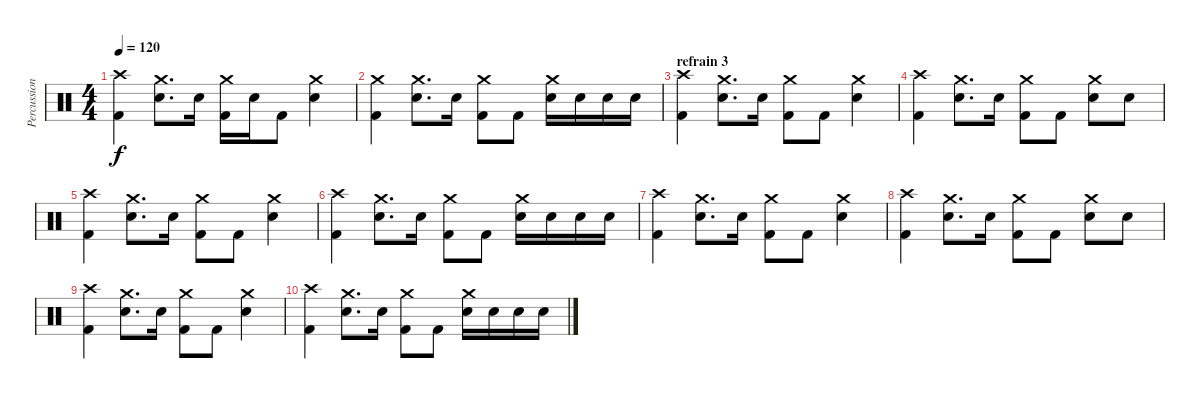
\track ("Percussions" "Percussion") {instrument percussion}
\staff {score}
\articulation defaults
\ts (4 4)
\tempo 120
\clef neutral
\ks c
("Crash high (hit)" "Kick (hit) 2").4{dy f} ("Crash medium (hit)" "Snare (hit) 2").8{d} "Snare (hit) 2".16 ("Crash medium (hit)" "Kick (hit) 2").16 "Snare (hit) 2".16 "Kick (hit) 2".8 ("Crash medium (hit)" "Snare (hit) 2").4 |
("Crash medium (hit)" "Kick (hit) 2").4 ("Crash medium (hit)" "Snare (hit) 2").8{d} "Snare (hit) 2".16 ("Crash medium (hit)" "Kick (hit) 2").8 "Kick (hit) 2".8 ("Crash medium (hit)" "Snare (hit) 2").16 "Snare (hit) 2".16 "Snare (hit) 2".16 "Snare (hit) 2".16 |
\section ("" "refrain 3")
("Crash high (hit)" "Kick (hit) 2").4 ("Crash medium (hit)" "Snare (hit) 2").8{d} "Snare (hit) 2".16 ("Crash medium (hit)" "Kick (hit) 2").8 "Kick (hit) 2".8 ("Crash medium (hit)" "Snare (hit) 2").4 |
("Crash high (hit)" "Kick (hit) 2").4 ("Crash medium (hit)" "Snare (hit) 2").8{d} "Snare (hit) 2".16 ("Crash medium (hit)" "Kick (hit) 2").8 "Kick (hit) 2".8 ("Crash medium (hit)" "Snare (hit) 2").8 "Snare (hit) 2".8 |
("Crash high (hit)" "Kick (hit) 2").4 ("Crash medium (hit)" "Snare (hit) 2").8{d} "Snare (hit) 2".16 ("Crash medium (hit)" "Kick (hit) 2").8 "Kick (hit) 2".8 ("Crash medium (hit)" "Snare (hit) 2").4 |
("Crash high (hit)" "Kick (hit) 2").4 ("Crash medium (hit)" "Snare (hit) 2").8{d} "Snare (hit) 2".16 ("Crash medium (hit)" "Kick (hit) 2").8 "Kick (hit) 2".8 ("Crash medium (hit)" "Snare (hit) 2").16 "Snare (hit) 2".16 "Snare (hit) 2".16 "Snare (hit) 2".16 |
("Crash high (hit)" "Kick (hit) 2").4 ("Crash medium (hit)" "Snare (hit) 2").8{d} "Snare (hit) 2".16 ("Crash medium (hit)" "Kick (hit) 2").8 "Kick (hit) 2".8 ("Crash medium (hit)" "Snare (hit) 2").4 |
("Crash high (hit)" "Kick (hit) 2").4 ("Crash medium (hit)" "Snare (hit) 2").8{d} "Snare (hit) 2".16 ("Crash medium (hit)" "Kick (hit) 2").8 "Kick (hit) 2".8 ("Crash medium (hit)" "Snare (hit) 2").8 "Snare (hit) 2".8 |
("Crash high (hit)" "Kick (hit) 2").4 ("Crash medium (hit)" "Snare (hit) 2").8{d} "Snare (hit) 2".16 ("Crash medium (hit)" "Kick (hit) 2").8 "Kick (hit) 2".8 ("Crash medium (hit)" "Snare (hit) 2").4 |
("Crash high (hit)" "Kick (hit) 2").4 ("Crash medium (hit)" "Snare (hit) 2").8{d} "Snare (hit) 2".16 ("Crash medium (hit)" "Kick (hit) 2").8 "Kick (hit) 2".8 ("Crash medium (hit)" "Snare (hit) 2").16 "Snare (hit) 2".16 "Snare (hit) 2".16 "Snare (hit) 2".16
